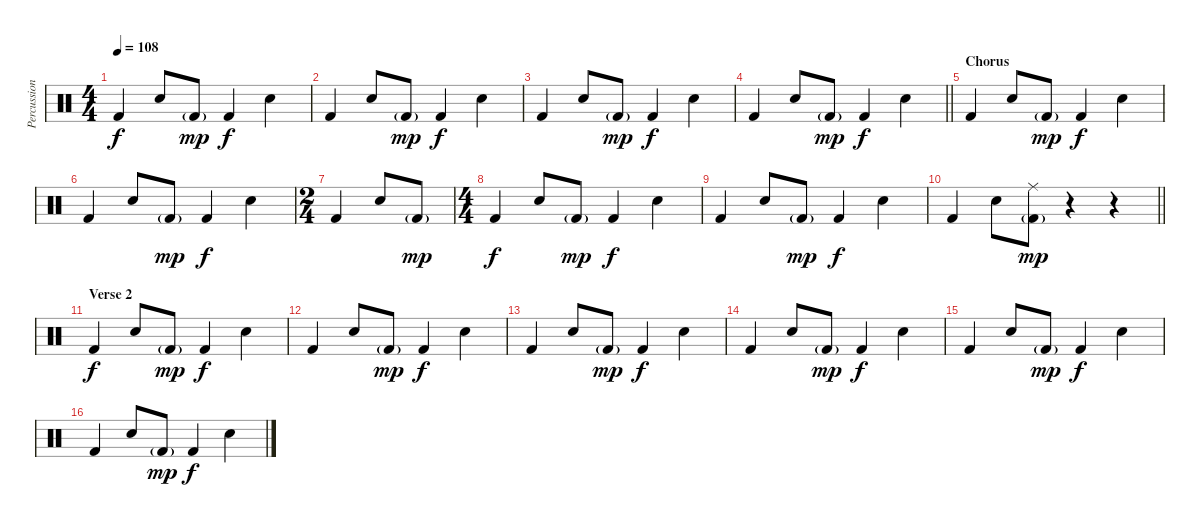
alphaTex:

\track ("Percussion" "Percussion") {instrument percussion}
\staff {score}
\articulation defaults
\ts (4 4)
\tempo 108
\clef neutral
\ks c "Kick (hit) 2".4{dy f} "Snare (hit) 2".8 "Kick (hit) 2"{g}.8{dy mp} "Kick (hit) 2".4{dy f} "Snare (hit) 2".4
|
"Kick (hit) 2".4 "Snare (hit) 2".8 "Kick (hit) 2"{g}.8{dy mp} "Kick (hit) 2".4{dy f} "Snare (hit) 2".4 |
"Kick (hit) 2".4 "Snare (hit) 2".8 "Kick (hit) 2"{g}.8{dy mp} "Kick (hit) 2".4{dy f} "Snare (hit) 2".4 |
\barLineRight lightlight "Kick (hit) 2".4 "Snare (hit) 2".8 "Kick (hit) 2"{g}.8{dy mp} "Kick (hit) 2".4{dy f} "Snare (hit) 2".4
|
\section ("" "Chorus")
"Kick (hit) 2".4 "Snare (hit) 2".8 "Kick (hit) 2"{g}.8{dy mp} "Kick (hit) 2".4{dy f} "Snare (hit) 2".4 |
"Kick (hit) 2".4 "Snare (hit) 2".8 "Kick (hit) 2"{g}.8{dy mp} "Kick (hit) 2".4{dy f} "Snare (hit) 2".4 |
\ts (2 4)
"Kick (hit) 2".4 "Snare (hit) 2".8 "Kick (hit) 2"{g}.8{dy mp} |
\ts (4 4)
"Kick (hit) 2".4{dy f} "Snare (hit) 2".8 "Kick (hit) 2"{g}.8{dy mp} "Kick (hit) 2".4{dy f} "Snare (hit) 2".4 |
"Kick (hit) 2".4 "Snare (hit) 2".8 "Kick (hit) 2"{g}.8{dy mp} "Kick (hit) 2".4{dy f} "Snare (hit) 2".4 |
\barLineRight lightlight "Kick (hit) 2".4 "Snare (hit) 2".8
("Ride (middle)" "Kick (hit) 2"{g}).8{dy mp} r.4 r.4 |
\section ("" "Verse 2")
"Kick (hit) 2".4{dy f} "Snare (hit) 2".8 "Kick (hit) 2"{g}.8{dy mp} "Kick (hit) 2".4{dy f} "Snare (hit) 2".4 |
"Kick (hit) 2".4 "Snare (hit) 2".8 "Kick (hit) 2"{g}.8{dy mp} "Kick (hit) 2".4{dy f} "Snare (hit) 2".4 |
"Kick (hit) 2".4 "Snare (hit) 2".8 "Kick (hit) 2"{g}.8{dy mp} "Kick (hit) 2".4{dy f} "Snare (hit) 2".4 |
"Kick (hit) 2".4 "Snare (hit) 2".8 "Kick (hit) 2"{g}.8{dy mp} "Kick (hit) 2".4{dy f} "Snare (hit) 2".4 |
"Kick (hit) 2".4 "Snare (hit) 2".8 "Kick (hit) 2"{g}.8{dy mp} "Kick (hit) 2".4{dy f} "Snare (hit) 2".4 |
"Kick (hit) 2".4 "Snare (hit) 2".8 "Kick (hit) 2"{g}.8{dy mp} "Kick (hit) 2".4{dy f} "Snare (hit) 2".4
